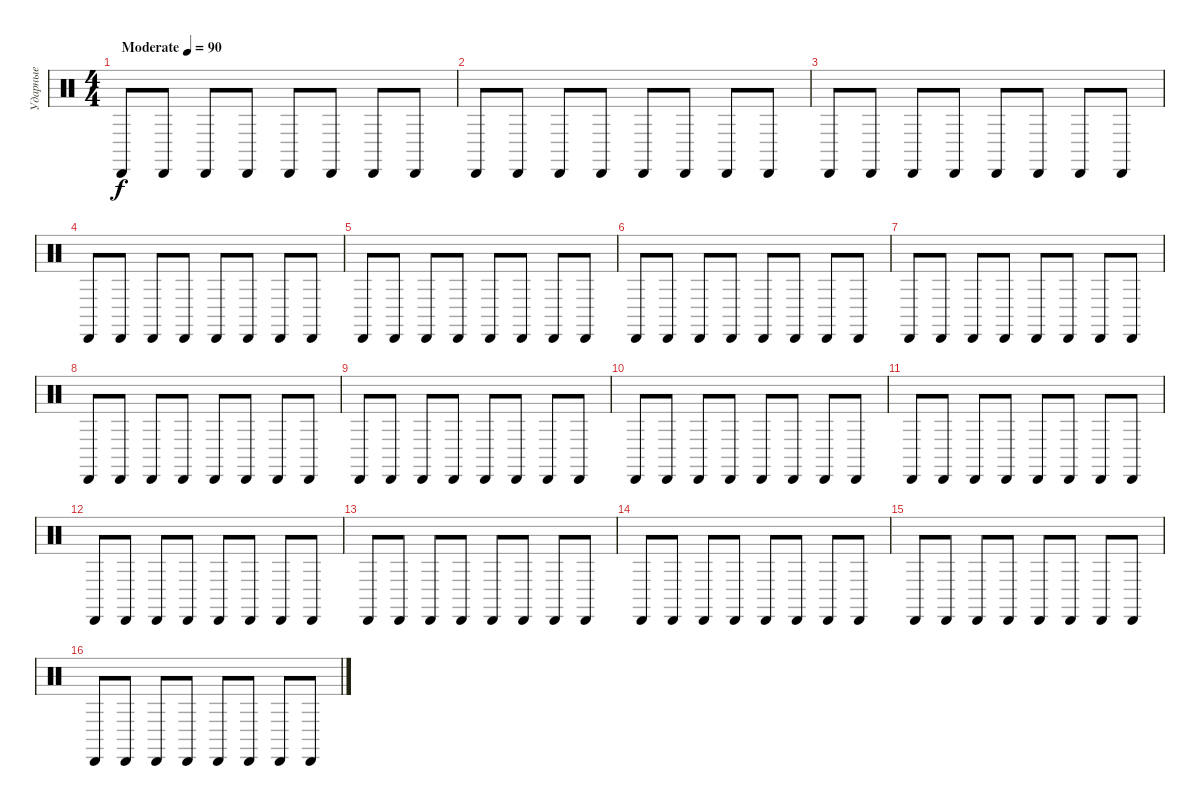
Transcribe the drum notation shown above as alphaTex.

\track ("Ударные" "Ударные") {instrument percussion}
\staff {score}
\articulation defaults
\ts (4 4)
\tempo (90 "Moderate")
\clef neutral
\ks c "Cabasa (hit)".8{dy f} "Cabasa (hit)".8 "Cabasa (hit)".8 "Cabasa (hit)".8 "Cabasa (hit)".8 "Cabasa (hit)".8 "Cabasa (hit)".8 "Cabasa (hit)".8
|
"Cabasa (hit)".8 "Cabasa (hit)".8 "Cabasa (hit)".8 "Cabasa (hit)".8 "Cabasa (hit)".8 "Cabasa (hit)".8 "Cabasa (hit)".8 "Cabasa (hit)".8 |
"Cabasa (hit)".8 "Cabasa (hit)".8 "Cabasa (hit)".8 "Cabasa (hit)".8 "Cabasa (hit)".8 "Cabasa (hit)".8 "Cabasa (hit)".8 "Cabasa (hit)".8 |
"Cabasa (hit)".8 "Cabasa (hit)".8 "Cabasa (hit)".8 "Cabasa (hit)".8 "Cabasa (hit)".8 "Cabasa (hit)".8 "Cabasa (hit)".8 "Cabasa (hit)".8 |
"Cabasa (hit)".8 "Cabasa (hit)".8 "Cabasa (hit)".8 "Cabasa (hit)".8 "Cabasa (hit)".8 "Cabasa (hit)".8 "Cabasa (hit)".8 "Cabasa (hit)".8 |
"Cabasa (hit)".8 "Cabasa (hit)".8 "Cabasa (hit)".8 "Cabasa (hit)".8 "Cabasa (hit)".8 "Cabasa (hit)".8 "Cabasa (hit)".8 "Cabasa (hit)".8 |
"Cabasa (hit)".8 "Cabasa (hit)".8 "Cabasa (hit)".8 "Cabasa (hit)".8 "Cabasa (hit)".8 "Cabasa (hit)".8 "Cabasa (hit)".8 "Cabasa (hit)".8 |
"Cabasa (hit)".8 "Cabasa (hit)".8 "Cabasa (hit)".8 "Cabasa (hit)".8 "Cabasa (hit)".8 "Cabasa (hit)".8 "Cabasa (hit)".8 "Cabasa (hit)".8 |
"Cabasa (hit)".8 "Cabasa (hit)".8 "Cabasa (hit)".8 "Cabasa (hit)".8 "Cabasa (hit)".8 "Cabasa (hit)".8 "Cabasa (hit)".8 "Cabasa (hit)".8 |
"Cabasa (hit)".8 "Cabasa (hit)".8 "Cabasa (hit)".8 "Cabasa (hit)".8 "Cabasa (hit)".8 "Cabasa (hit)".8 "Cabasa (hit)".8 "Cabasa (hit)".8 |
"Cabasa (hit)".8 "Cabasa (hit)".8 "Cabasa (hit)".8 "Cabasa (hit)".8 "Cabasa (hit)".8 "Cabasa (hit)".8 "Cabasa (hit)".8 "Cabasa (hit)".8 |
"Cabasa (hit)".8 "Cabasa (hit)".8 "Cabasa (hit)".8 "Cabasa (hit)".8 "Cabasa (hit)".8 "Cabasa (hit)".8 "Cabasa (hit)".8 "Cabasa (hit)".8 |
"Cabasa (hit)".8 "Cabasa (hit)".8 "Cabasa (hit)".8 "Cabasa (hit)".8 "Cabasa (hit)".8 "Cabasa (hit)".8 "Cabasa (hit)".8 "Cabasa (hit)".8 |
"Cabasa (hit)".8 "Cabasa (hit)".8 "Cabasa (hit)".8 "Cabasa (hit)".8 "Cabasa (hit)".8 "Cabasa (hit)".8 "Cabasa (hit)".8 "Cabasa (hit)".8 |
"Cabasa (hit)".8 "Cabasa (hit)".8 "Cabasa (hit)".8 "Cabasa (hit)".8 "Cabasa (hit)".8 "Cabasa (hit)".8 "Cabasa (hit)".8 "Cabasa (hit)".8 |
"Cabasa (hit)".8 "Cabasa (hit)".8 "Cabasa (hit)".8 "Cabasa (hit)".8 "Cabasa (hit)".8 "Cabasa (hit)".8 "Cabasa (hit)".8 "Cabasa (hit)".8
